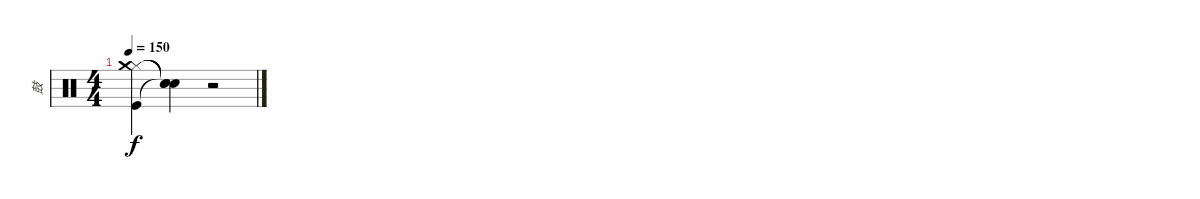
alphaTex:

\track ("鼓" "鼓") {instrument percussion}
\staff {score}
\articulation defaults
\ts (4 4)
\tempo 150
\clef neutral
\ks c
("Kick (hit)" "Hi-Hat (closed)" "Crash medium (hit)").4{dy f} ("Snare (hit)"{t} "Snare (hit)"{t} "Snare (hit)"{t}).4 r.2
